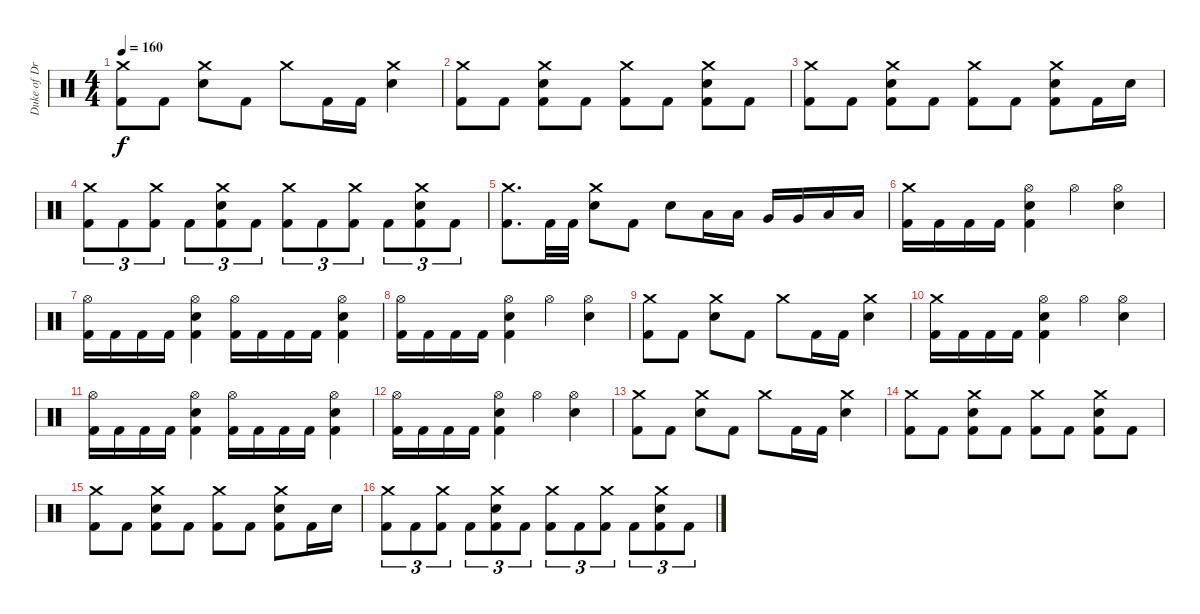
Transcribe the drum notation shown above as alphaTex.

\track ("Duke of Drumington" "Duke of Dr") {instrument percussion}
\staff {score}
\articulation defaults
\ts (4 4)
\tempo 160
\clef neutral
\ks c
("Crash medium (hit)" "Kick (hit) 2").8{dy f} "Kick (hit) 2".8 ("Crash medium (hit)" "Electric Snare (hit)").8 "Kick (hit) 2".8 "Crash medium (hit)".8 "Kick (hit) 2".16 "Kick (hit) 2".16 ("Crash medium (hit)" "Electric Snare (hit)").4 |
("Crash medium (hit)" "Kick (hit) 2").8 "Kick (hit) 2".8 ("Crash medium (hit)" "Electric Snare (hit)" "Kick (hit) 2").8 "Kick (hit) 2".8 ("Crash medium (hit)" "Kick (hit) 2").8 "Kick (hit) 2".8 ("Crash medium (hit)" "Electric Snare (hit)" "Kick (hit) 2").8 "Kick (hit) 2".8 |
("Crash medium (hit)" "Kick (hit) 2").8 "Kick (hit) 2".8 ("Crash medium (hit)" "Electric Snare (hit)" "Kick (hit) 2").8 "Kick (hit) 2".8 ("Crash medium (hit)" "Kick (hit) 2").8 "Kick (hit) 2".8 ("Crash medium (hit)" "Electric Snare (hit)" "Kick (hit) 2").8 "Kick (hit) 2".16 "Electric Snare (hit)".16 |
("Crash medium (hit)" "Kick (hit) 2").8{tu (3 2)} "Kick (hit) 2".8{tu (3 2)} ("Crash medium (hit)" "Kick (hit) 2").8{tu (3 2)} "Kick (hit) 2".8{tu (3 2)} ("Crash medium (hit)" "Electric Snare (hit)" "Kick (hit) 2").8{tu (3 2)} "Kick (hit) 2".8{tu (3 2)} ("Crash medium (hit)" "Kick (hit) 2").8{tu (3 2)} "Kick (hit) 2".8{tu (3 2)} ("Crash medium (hit)" "Kick (hit) 2").8{tu (3 2)} "Kick (hit) 2".8{tu (3 2)} ("Crash medium (hit)" "Electric Snare (hit)" "Kick (hit) 2").8{tu (3 2)} "Kick (hit) 2".8{tu (3 2)} |
("Crash medium (hit)" "Kick (hit) 2").8{d} "Kick (hit) 2".32 "Kick (hit) 2".32 ("Crash medium (hit)" "Electric Snare (hit)").8 "Kick (hit) 2".8 "Electric Snare (hit)".8 "Low Tom (hit)".16 "Low Tom (hit)".16 "Very Low Tom (hit)".16 "Very Low Tom (hit)".16 "Low Floor Tom (hit)".16 "Low Floor Tom (hit)".16 |
("Crash medium (hit)" "Kick (hit) 2").16 "Kick (hit) 2".16 "Kick (hit) 2".16 "Kick (hit) 2".16 ("Hi-Hat (open)" "Electric Snare (hit)" "Kick (hit) 2").4 "Hi-Hat (open)".4 ("Hi-Hat (open)" "Electric Snare (hit)").4 |
("Hi-Hat (open)" "Kick (hit) 2").16 "Kick (hit) 2".16 "Kick (hit) 2".16 "Kick (hit) 2".16 ("Hi-Hat (open)" "Electric Snare (hit)" "Kick (hit) 2").4 ("Hi-Hat (open)" "Kick (hit) 2").16 "Kick (hit) 2".16 "Kick (hit) 2".16 "Kick (hit) 2".16 ("Hi-Hat (open)" "Electric Snare (hit)" "Kick (hit) 2").4 |
("Hi-Hat (open)" "Kick (hit) 2").16 "Kick (hit) 2".16 "Kick (hit) 2".16 "Kick (hit) 2".16 ("Hi-Hat (open)" "Electric Snare (hit)" "Kick (hit) 2").4 "Hi-Hat (open)".4 ("Hi-Hat (open)" "Electric Snare (hit)").4 |
("Crash medium (hit)" "Kick (hit) 2").8 "Kick (hit) 2".8 ("Crash medium (hit)" "Electric Snare (hit)").8 "Kick (hit) 2".8 "Crash medium (hit)".8 "Kick (hit) 2".16 "Kick (hit) 2".16 ("Crash medium (hit)" "Electric Snare (hit)").4 |
("Crash medium (hit)" "Kick (hit) 2").16 "Kick (hit) 2".16 "Kick (hit) 2".16 "Kick (hit) 2".16 ("Hi-Hat (open)" "Electric Snare (hit)" "Kick (hit) 2").4 "Hi-Hat (open)".4 ("Hi-Hat (open)" "Electric Snare (hit)").4 |
("Hi-Hat (open)" "Kick (hit) 2").16 "Kick (hit) 2".16 "Kick (hit) 2".16 "Kick (hit) 2".16 ("Hi-Hat (open)" "Electric Snare (hit)" "Kick (hit) 2").4 ("Hi-Hat (open)" "Kick (hit) 2").16 "Kick (hit) 2".16 "Kick (hit) 2".16 "Kick (hit) 2".16 ("Hi-Hat (open)" "Electric Snare (hit)" "Kick (hit) 2").4 |
("Hi-Hat (open)" "Kick (hit) 2").16 "Kick (hit) 2".16 "Kick (hit) 2".16 "Kick (hit) 2".16 ("Hi-Hat (open)" "Electric Snare (hit)" "Kick (hit) 2").4 "Hi-Hat (open)".4 ("Hi-Hat (open)" "Electric Snare (hit)").4 |
("Crash medium (hit)" "Kick (hit) 2").8 "Kick (hit) 2".8 ("Crash medium (hit)" "Electric Snare (hit)").8 "Kick (hit) 2".8 "Crash medium (hit)".8 "Kick (hit) 2".16 "Kick (hit) 2".16 ("Crash medium (hit)" "Electric Snare (hit)").4 |
("Crash medium (hit)" "Kick (hit) 2").8 "Kick (hit) 2".8 ("Crash medium (hit)" "Electric Snare (hit)" "Kick (hit) 2").8 "Kick (hit) 2".8 ("Crash medium (hit)" "Kick (hit) 2").8 "Kick (hit) 2".8 ("Crash medium (hit)" "Electric Snare (hit)" "Kick (hit) 2").8 "Kick (hit) 2".8 |
("Crash medium (hit)" "Kick (hit) 2").8 "Kick (hit) 2".8 ("Crash medium (hit)" "Electric Snare (hit)" "Kick (hit) 2").8 "Kick (hit) 2".8 ("Crash medium (hit)" "Kick (hit) 2").8 "Kick (hit) 2".8 ("Crash medium (hit)" "Electric Snare (hit)" "Kick (hit) 2").8 "Kick (hit) 2".16 "Electric Snare (hit)".16 |
("Crash medium (hit)" "Kick (hit) 2").8{tu (3 2)} "Kick (hit) 2".8{tu (3 2)} ("Crash medium (hit)" "Kick (hit) 2").8{tu (3 2)} "Kick (hit) 2".8{tu (3 2)} ("Crash medium (hit)" "Electric Snare (hit)" "Kick (hit) 2").8{tu (3 2)} "Kick (hit) 2".8{tu (3 2)} ("Crash medium (hit)" "Kick (hit) 2").8{tu (3 2)} "Kick (hit) 2".8{tu (3 2)} ("Crash medium (hit)" "Kick (hit) 2").8{tu (3 2)} "Kick (hit) 2".8{tu (3 2)} ("Crash medium (hit)" "Electric Snare (hit)" "Kick (hit) 2").8{tu (3 2)} "Kick (hit) 2".8{tu (3 2)}
